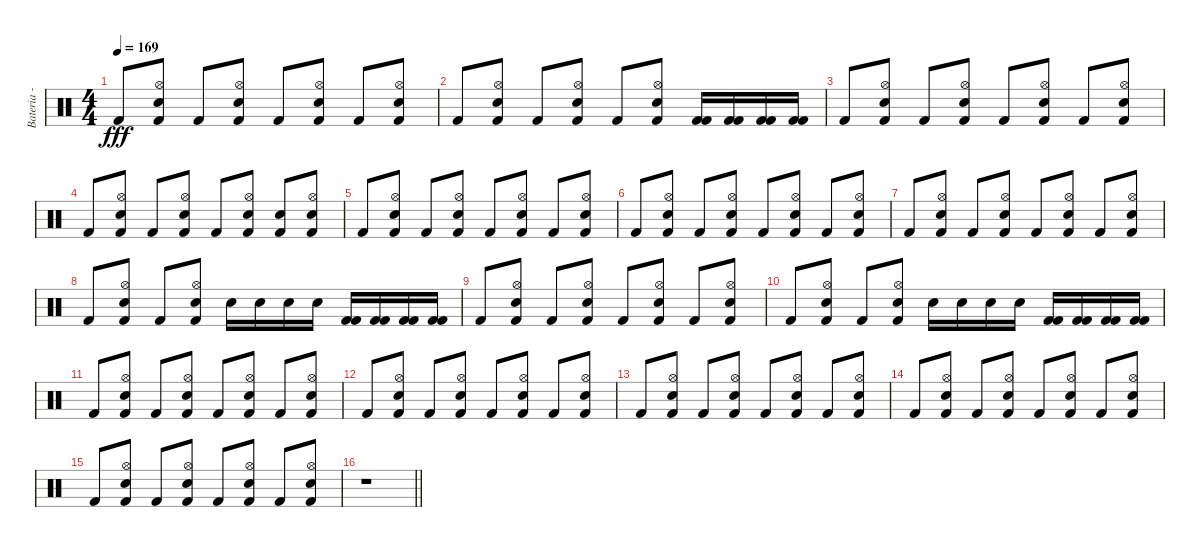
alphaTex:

\track ("Bateria - Larzon" "Bateria - ") {instrument percussion}
\staff {score}
\articulation defaults
\ts (4 4)
\tempo 169
\clef neutral
\ks c "Kick (hit) 2".8{dy fff}
("Kick (hit) 2" "Hi-Hat (open)" "Snare (hit) 2").8 "Kick (hit) 2".8 ("Kick (hit) 2" "Hi-Hat (open)" "Snare (hit) 2").8 "Kick (hit) 2".8 ("Kick (hit) 2" "Hi-Hat (open)" "Snare (hit) 2").8 "Kick (hit) 2".8 ("Kick (hit) 2" "Hi-Hat (open)" "Snare (hit) 2").8 |
"Kick (hit) 2".8 ("Kick (hit) 2" "Hi-Hat (open)" "Snare (hit) 2").8 "Kick (hit) 2".8 ("Kick (hit) 2" "Hi-Hat (open)" "Snare (hit) 2").8 "Kick (hit) 2".8 ("Kick (hit) 2" "Hi-Hat (open)" "Snare (hit) 2").8 ("Kick (hit) 2" "Kick (hit) 2").16 ("Kick (hit) 2" "Kick (hit) 2").16 ("Kick (hit) 2" "Kick (hit) 2").16 ("Kick (hit) 2" "Kick (hit) 2").16 |
"Kick (hit) 2".8 ("Kick (hit) 2" "Hi-Hat (open)" "Snare (hit) 2").8 "Kick (hit) 2".8 ("Kick (hit) 2" "Hi-Hat (open)" "Snare (hit) 2").8 "Kick (hit) 2".8 ("Kick (hit) 2" "Hi-Hat (open)" "Snare (hit) 2").8 "Kick (hit) 2".8 ("Kick (hit) 2" "Hi-Hat (open)" "Snare (hit) 2").8 |
"Kick (hit) 2".8 ("Kick (hit) 2" "Hi-Hat (open)" "Snare (hit) 2").8 "Kick (hit) 2".8 ("Kick (hit) 2" "Hi-Hat (open)" "Snare (hit) 2").8 "Kick (hit) 2".8 ("Kick (hit) 2" "Hi-Hat (open)" "Snare (hit) 2").8 ("Kick (hit) 2" "Snare (hit) 2").8 ("Kick (hit) 2" "Hi-Hat (open)" "Snare (hit) 2").8 |
"Kick (hit) 2".8 ("Kick (hit) 2" "Hi-Hat (open)" "Snare (hit) 2").8 "Kick (hit) 2".8 ("Kick (hit) 2" "Hi-Hat (open)" "Snare (hit) 2").8 "Kick (hit) 2".8 ("Kick (hit) 2" "Hi-Hat (open)" "Snare (hit) 2").8 "Kick (hit) 2".8 ("Kick (hit) 2" "Hi-Hat (open)" "Snare (hit) 2").8 |
"Kick (hit) 2".8 ("Kick (hit) 2" "Hi-Hat (open)" "Snare (hit) 2").8 "Kick (hit) 2".8 ("Kick (hit) 2" "Hi-Hat (open)" "Snare (hit) 2").8 "Kick (hit) 2".8 ("Kick (hit) 2" "Hi-Hat (open)" "Snare (hit) 2").8 "Kick (hit) 2".8 ("Kick (hit) 2" "Hi-Hat (open)" "Snare (hit) 2").8 |
"Kick (hit) 2".8 ("Kick (hit) 2" "Hi-Hat (open)" "Snare (hit) 2").8 "Kick (hit) 2".8 ("Kick (hit) 2" "Hi-Hat (open)" "Snare (hit) 2").8 "Kick (hit) 2".8 ("Kick (hit) 2" "Hi-Hat (open)" "Snare (hit) 2").8 "Kick (hit) 2".8 ("Kick (hit) 2" "Hi-Hat (open)" "Snare (hit) 2").8 |
"Kick (hit) 2".8 ("Kick (hit) 2" "Hi-Hat (open)" "Snare (hit) 2").8 "Kick (hit) 2".8 ("Kick (hit) 2" "Hi-Hat (open)" "Snare (hit) 2").8 "Snare (hit) 2".16 "Snare (hit) 2".16 "Snare (hit) 2".16 "Snare (hit) 2".16 ("Kick (hit) 2" "Kick (hit) 2").16 ("Kick (hit) 2" "Kick (hit) 2").16 ("Kick (hit) 2" "Kick (hit) 2").16 ("Kick (hit) 2" "Kick (hit) 2").16 |
"Kick (hit) 2".8 ("Kick (hit) 2" "Hi-Hat (open)" "Snare (hit) 2").8 "Kick (hit) 2".8 ("Kick (hit) 2" "Hi-Hat (open)" "Snare (hit) 2").8 "Kick (hit) 2".8 ("Kick (hit) 2" "Hi-Hat (open)" "Snare (hit) 2").8 "Kick (hit) 2".8 ("Kick (hit) 2" "Hi-Hat (open)" "Snare (hit) 2").8 |
"Kick (hit) 2".8 ("Kick (hit) 2" "Hi-Hat (open)" "Snare (hit) 2").8 "Kick (hit) 2".8 ("Kick (hit) 2" "Hi-Hat (open)" "Snare (hit) 2").8 "Snare (hit) 2".16 "Snare (hit) 2".16 "Snare (hit) 2".16 "Snare (hit) 2".16 ("Kick (hit) 2" "Kick (hit) 2").16 ("Kick (hit) 2" "Kick (hit) 2").16 ("Kick (hit) 2" "Kick (hit) 2").16 ("Kick (hit) 2" "Kick (hit) 2").16 |
"Kick (hit) 2".8 ("Kick (hit) 2" "Hi-Hat (open)" "Snare (hit) 2").8 "Kick (hit) 2".8 ("Kick (hit) 2" "Hi-Hat (open)" "Snare (hit) 2").8 "Kick (hit) 2".8 ("Kick (hit) 2" "Hi-Hat (open)" "Snare (hit) 2").8 "Kick (hit) 2".8 ("Kick (hit) 2" "Hi-Hat (open)" "Snare (hit) 2").8 |
"Kick (hit) 2".8 ("Kick (hit) 2" "Hi-Hat (open)" "Snare (hit) 2").8 "Kick (hit) 2".8 ("Kick (hit) 2" "Hi-Hat (open)" "Snare (hit) 2").8 "Kick (hit) 2".8 ("Kick (hit) 2" "Hi-Hat (open)" "Snare (hit) 2").8 "Kick (hit) 2".8 ("Kick (hit) 2" "Hi-Hat (open)" "Snare (hit) 2").8 |
"Kick (hit) 2".8 ("Kick (hit) 2" "Hi-Hat (open)" "Snare (hit) 2").8 "Kick (hit) 2".8 ("Kick (hit) 2" "Hi-Hat (open)" "Snare (hit) 2").8 "Kick (hit) 2".8 ("Kick (hit) 2" "Hi-Hat (open)" "Snare (hit) 2").8 "Kick (hit) 2".8 ("Kick (hit) 2" "Hi-Hat (open)" "Snare (hit) 2").8 |
"Kick (hit) 2".8 ("Kick (hit) 2" "Hi-Hat (open)" "Snare (hit) 2").8 "Kick (hit) 2".8 ("Kick (hit) 2" "Hi-Hat (open)" "Snare (hit) 2").8 "Kick (hit) 2".8 ("Kick (hit) 2" "Hi-Hat (open)" "Snare (hit) 2").8 "Kick (hit) 2".8 ("Kick (hit) 2" "Hi-Hat (open)" "Snare (hit) 2").8 |
"Kick (hit) 2".8 ("Kick (hit) 2" "Hi-Hat (open)" "Snare (hit) 2").8 "Kick (hit) 2".8 ("Kick (hit) 2" "Hi-Hat (open)" "Snare (hit) 2").8 "Kick (hit) 2".8 ("Kick (hit) 2" "Hi-Hat (open)" "Snare (hit) 2").8 "Kick (hit) 2".8 ("Kick (hit) 2" "Hi-Hat (open)" "Snare (hit) 2").8 |
\barLineRight lightlight
r.1
